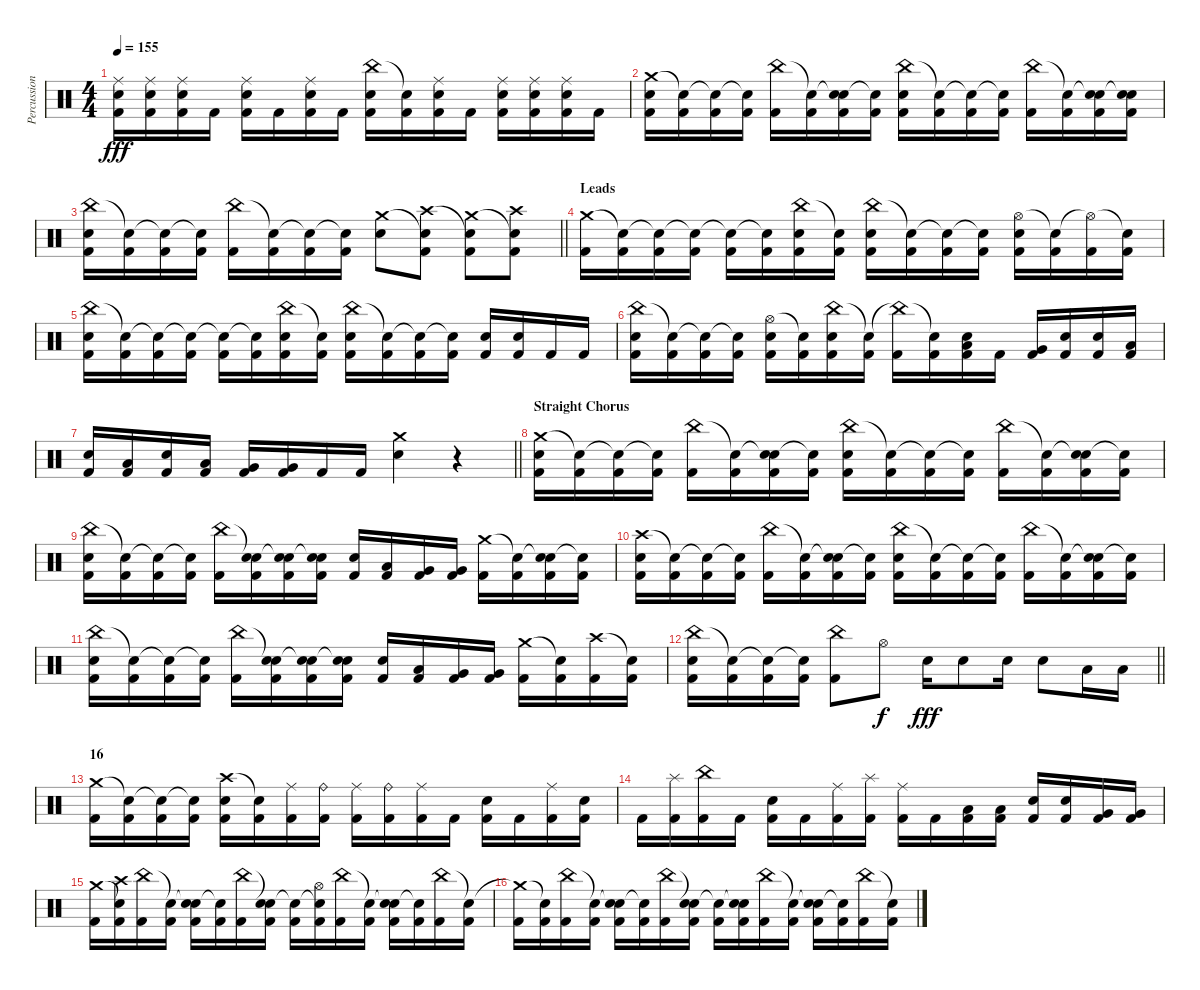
\track ("Percussion" "Percussion") {instrument percussion}
\staff {score}
\articulation defaults
\ts (4 4)
\tempo 155
\clef neutral
\ks c
("Ride (middle)" "Electric Snare (hit)" "Kick (hit) 2").16{dy fff} ("Ride (middle)" "Electric Snare (hit)" "Kick (hit) 2").16 ("Ride (middle)" "Electric Snare (hit)" "Kick (hit) 2").16 "Kick (hit) 2".16 ("Ride (middle)" "Electric Snare (hit)" "Kick (hit) 2").16 "Kick (hit) 2".16 ("Ride (middle)" "Electric Snare (hit)" "Kick (hit) 2").16 "Kick (hit) 2".16 ("China (hit)" "Electric Snare (hit)" "Kick (hit) 2").16 ("Snare (hit)"{t} "Kick (hit) 2").16 ("Ride (middle)" "Electric Snare (hit)" "Kick (hit) 2").16 "Kick (hit) 2".16 ("Ride (middle)" "Electric Snare (hit)" "Kick (hit) 2").16 ("Ride (middle)" "Electric Snare (hit)" "Kick (hit) 2").16 ("Ride (middle)" "Electric Snare (hit)" "Kick (hit) 2").16 "Kick (hit) 2".16 |
("Crash medium (hit)" "Electric Snare (hit)" "Kick (hit) 2").16 ("Snare (hit)"{t} "Kick (hit) 2").16 ("Snare (hit)"{t} "Kick (hit) 2").16 ("Snare (hit)"{t} "Kick (hit) 2").16 ("China (hit)" "Kick (hit) 2").16 ("Snare (hit)"{t} "Kick (hit) 2").16 ("Snare (hit)"{t} "Electric Snare (hit)" "Kick (hit) 2").16 ("Snare (hit)"{t} "Kick (hit) 2").16 ("China (hit)" "Electric Snare (hit)" "Kick (hit) 2").16 ("Snare (hit)"{t} "Kick (hit) 2").16 ("Snare (hit)"{t} "Kick (hit) 2").16 ("Snare (hit)"{t} "Kick (hit) 2").16 ("China (hit)" "Kick (hit) 2").16 ("Snare (hit)"{t} "Kick (hit) 2").16 ("Snare (hit)"{t} "Electric Snare (hit)" "Kick (hit) 2").16 ("Snare (hit)"{t} "Electric Snare (hit)" "Kick (hit) 2").16 |
\barLineRight lightlight
("China (hit)" "Electric Snare (hit)" "Kick (hit) 2").16 ("Snare (hit)"{t} "Kick (hit) 2").16 ("Snare (hit)"{t} "Kick (hit) 2").16 ("Snare (hit)"{t} "Kick (hit) 2").16 ("China (hit)" "Kick (hit) 2").16 ("Snare (hit)"{t} "Kick (hit) 2").16 ("Snare (hit)"{t} "Kick (hit) 2").16 ("Snare (hit)"{t} "Kick (hit) 2").16 ("Crash medium (hit)" "Electric Snare (hit)").8 ("Snare (hit)"{t} "Crash high (hit)" "Kick (hit) 2").8 ("Crash medium (hit)" "Snare (hit)"{t} "Kick (hit) 2").8 ("Snare (hit)"{t} "Crash high (hit)" "Kick (hit) 2").8 |
\section ("" "Leads")
("Crash medium (hit)" "Kick (hit) 2").16 ("Snare (hit)"{t} "Kick (hit) 2").16 ("Snare (hit)"{t} "Kick (hit) 2").16 ("Snare (hit)"{t} "Kick (hit) 2").16 ("Snare (hit)"{t} "Kick (hit) 2").16 ("Snare (hit)"{t} "Kick (hit) 2").16 ("China (hit)" "Electric Snare (hit)" "Kick (hit) 2").16 ("Snare (hit)"{t} "Kick (hit) 2").16 ("China (hit)" "Electric Snare (hit)" "Kick (hit) 2").16 ("Snare (hit)"{t} "Kick (hit) 2").16 ("Snare (hit)"{t} "Kick (hit) 2").16 ("Snare (hit)"{t} "Kick (hit) 2").16 ("Hi-Hat (open)" "Electric Snare (hit)" "Kick (hit) 2").16 ("Snare (hit)"{t} "Kick (hit) 2").16 ("Hi-Hat (open)"{t} "Kick (hit) 2").16 ("Snare (hit)"{t} "Kick (hit) 2").16 |
("China (hit)" "Electric Snare (hit)" "Kick (hit) 2").16 ("Snare (hit)"{t} "Kick (hit) 2").16 ("Snare (hit)"{t} "Kick (hit) 2").16 ("Snare (hit)"{t} "Kick (hit) 2").16 ("Snare (hit)"{t} "Kick (hit) 2").16 ("Snare (hit)"{t} "Kick (hit) 2").16 ("China (hit)" "Electric Snare (hit)" "Kick (hit) 2").16 ("Snare (hit)"{t} "Kick (hit) 2").16 ("China (hit)" "Electric Snare (hit)" "Kick (hit) 2").16 ("Snare (hit)"{t} "Kick (hit) 2").16 ("Snare (hit)"{t} "Kick (hit) 2").16 ("Snare (hit)"{t} "Kick (hit) 2").16 ("Electric Snare (hit)" "Kick (hit) 2").16 ("Electric Snare (hit)" "Kick (hit) 2").16 "Kick (hit) 2".16 "Kick (hit) 2".16 |
("China (hit)" "Electric Snare (hit)" "Kick (hit) 2").16 ("Snare (hit)"{t} "Kick (hit) 2").16 ("Snare (hit)"{t} "Kick (hit) 2").16 ("Snare (hit)"{t} "Kick (hit) 2").16 ("Hi-Hat (open)" "Electric Snare (hit)" "Kick (hit) 2").16 ("Snare (hit)"{t} "Kick (hit) 2").16 ("China (hit)" "Electric Snare (hit)" "Kick (hit) 2").16 ("Snare (hit)"{t} "Kick (hit) 2").16 ("China (hit)"{t} "Kick (hit) 2").16 ("Snare (hit)"{t} "Kick (hit) 2").16 ("Low Tom (hit)" "Electric Snare (hit)" "Kick (hit) 2").16 "Kick (hit) 2".16 ("Very Low Tom (hit)" "Kick (hit) 2").16 ("Electric Snare (hit)" "Kick (hit) 2").16 ("Electric Snare (hit)" "Kick (hit) 2").16 ("Low Tom (hit)" "Kick (hit) 2").16 |
\barLineRight lightlight
("Electric Snare (hit)" "Kick (hit) 2").16 ("Low Tom (hit)" "Kick (hit) 2").16 ("Electric Snare (hit)" "Kick (hit) 2").16 ("Low Tom (hit)" "Kick (hit) 2").16 ("Very Low Tom (hit)" "Kick (hit) 2").16 ("Very Low Tom (hit)" "Kick (hit) 2").16 "Kick (hit) 2".16 "Kick (hit) 2".16 ("Crash medium (hit)" "Electric Snare (hit)").4 r.4 |
\section ("" "Straight Chorus")
("Crash medium (hit)" "Electric Snare (hit)" "Kick (hit) 2").16 ("Snare (hit)"{t} "Kick (hit) 2").16 ("Snare (hit)"{t} "Kick (hit) 2").16 ("Snare (hit)"{t} "Kick (hit) 2").16 ("China (hit)" "Kick (hit) 2").16 ("Snare (hit)"{t} "Kick (hit) 2").16 ("Snare (hit)"{t} "Electric Snare (hit)" "Kick (hit) 2").16 ("Snare (hit)"{t} "Kick (hit) 2").16 ("China (hit)" "Electric Snare (hit)" "Kick (hit) 2").16 ("Snare (hit)"{t} "Kick (hit) 2").16 ("Snare (hit)"{t} "Kick (hit) 2").16 ("Snare (hit)"{t} "Kick (hit) 2").16 ("China (hit)" "Kick (hit) 2").16 ("Snare (hit)"{t} "Kick (hit) 2").16 ("Snare (hit)"{t} "Electric Snare (hit)" "Kick (hit) 2").16 ("Snare (hit)"{t} "Kick (hit) 2").16 |
("China (hit)" "Electric Snare (hit)" "Kick (hit) 2").16 ("Snare (hit)"{t} "Kick (hit) 2").16 ("Snare (hit)"{t} "Kick (hit) 2").16 ("Snare (hit)"{t} "Kick (hit) 2").16 ("China (hit)" "Kick (hit) 2").16 ("Snare (hit)"{t} "Electric Snare (hit)" "Kick (hit) 2").16 ("Snare (hit)"{t} "Electric Snare (hit)" "Kick (hit) 2").16 ("Snare (hit)"{t} "Electric Snare (hit)" "Kick (hit) 2").16 ("Electric Snare (hit)" "Kick (hit) 2").16 ("Low Tom (hit)" "Kick (hit) 2").16 ("Very Low Tom (hit)" "Kick (hit) 2").16 ("Very Low Tom (hit)" "Kick (hit) 2").16 ("Crash medium (hit)" "Kick (hit) 2").16 ("Snare (hit)"{t} "Kick (hit) 2").16 ("Snare (hit)"{t} "Electric Snare (hit)" "Kick (hit) 2").16 ("Snare (hit)"{t} "Kick (hit) 2").16 |
("Crash high (hit)" "Electric Snare (hit)" "Kick (hit) 2").16 ("Snare (hit)"{t} "Kick (hit) 2").16 ("Snare (hit)"{t} "Kick (hit) 2").16 ("Snare (hit)"{t} "Kick (hit) 2").16 ("China (hit)" "Kick (hit) 2").16 ("Snare (hit)"{t} "Kick (hit) 2").16 ("Snare (hit)"{t} "Electric Snare (hit)" "Kick (hit) 2").16 ("Snare (hit)"{t} "Kick (hit) 2").16 ("China (hit)" "Electric Snare (hit)" "Kick (hit) 2").16 ("Snare (hit)"{t} "Kick (hit) 2").16 ("Snare (hit)"{t} "Kick (hit) 2").16 ("Snare (hit)"{t} "Kick (hit) 2").16 ("China (hit)" "Kick (hit) 2").16 ("Snare (hit)"{t} "Kick (hit) 2").16 ("Snare (hit)"{t} "Electric Snare (hit)" "Kick (hit) 2").16 ("Snare (hit)"{t} "Kick (hit) 2").16 |
("China (hit)" "Electric Snare (hit)" "Kick (hit) 2").16 ("Snare (hit)"{t} "Kick (hit) 2").16 ("Snare (hit)"{t} "Kick (hit) 2").16 ("Snare (hit)"{t} "Kick (hit) 2").16 ("China (hit)" "Kick (hit) 2").16 ("Snare (hit)"{t} "Electric Snare (hit)" "Kick (hit) 2").16 ("Snare (hit)"{t} "Electric Snare (hit)" "Kick (hit) 2").16 ("Snare (hit)"{t} "Electric Snare (hit)" "Kick (hit) 2").16 ("Electric Snare (hit)" "Kick (hit) 2").16 ("Low Tom (hit)" "Kick (hit) 2").16 ("Very Low Tom (hit)" "Kick (hit) 2").16 ("Very Low Tom (hit)" "Kick (hit) 2").16 ("Crash medium (hit)" "Kick (hit) 2").16 ("Snare (hit)"{t} "Kick (hit) 2").16 ("Crash high (hit)" "Kick (hit) 2").16 ("Snare (hit)"{t} "Kick (hit) 2").16 |
\barLineRight lightlight
("China (hit)" "Electric Snare (hit)" "Kick (hit) 2").16 ("Snare (hit)"{t} "Kick (hit) 2").16 ("Snare (hit)"{t} "Kick (hit) 2").16 ("Snare (hit)"{t} "Kick (hit) 2").16 ("China (hit)" "Kick (hit) 2").8 "Hi-Hat (open)".8{dy f} "Electric Snare (hit)".16{dy fff} "Electric Snare (hit)".8 "Electric Snare (hit)".16 "Electric Snare (hit)".8 "Low Tom (hit)".16 "Low Tom (hit)".16 |
\section ("" "16")
("Crash medium (hit)" "Kick (hit) 2").16 ("Snare (hit)"{t} "Kick (hit) 2").16 ("Snare (hit)"{t} "Kick (hit) 2").16 ("Snare (hit)"{t} "Kick (hit) 2").16 ("Crash high (hit)" "Electric Snare (hit)" "Kick (hit) 2").16 ("Snare (hit)"{t} "Kick (hit) 2").16 ("Ride (middle)" "Kick (hit) 2").16 ("Ride (bell)" "Kick (hit) 2").16 ("Ride (middle)" "Kick (hit) 2").16 ("Ride (bell)" "Kick (hit) 2").16 ("Ride (middle)" "Kick (hit) 2").16 "Kick (hit) 2".16 ("Electric Snare (hit)" "Kick (hit) 2").16 "Kick (hit) 2".16 ("Ride (middle)" "Kick (hit) 2").16 ("Electric Snare (hit)" "Kick (hit) 2").16 |
"Kick (hit) 2".16 ("Splash (hit)" "Kick (hit) 2").16 ("China (hit)" "Kick (hit) 2").16 "Kick (hit) 2".16 ("Electric Snare (hit)" "Kick (hit) 2").16 "Kick (hit) 2".16 ("Ride (middle)" "Kick (hit) 2").16 ("Splash (hit)" "Kick (hit) 2").16 ("Ride (middle)" "Kick (hit) 2").16 "Kick (hit) 2".16 ("Low Tom (hit)" "Kick (hit) 2").16 ("Low Tom (hit)" "Kick (hit) 2").16 ("Electric Snare (hit)" "Kick (hit) 2").16 ("Electric Snare (hit)" "Kick (hit) 2").16 ("Very Low Tom (hit)" "Kick (hit) 2").16 ("Very Low Tom (hit)" "Kick (hit) 2").16 |
("Crash medium (hit)" "Kick (hit) 2").16 ("Snare (hit)"{t} "Crash high (hit)" "Kick (hit) 2").16 ("China (hit)" "Kick (hit) 2").16 ("Snare (hit)"{t} "Kick (hit) 2").16 ("Snare (hit)"{t} "Electric Snare (hit)" "Kick (hit) 2").16 ("Snare (hit)"{t} "Kick (hit) 2").16 ("China (hit)" "Kick (hit) 2").16 ("Snare (hit)"{t} "Electric Snare (hit)" "Kick (hit) 2").16 ("Snare (hit)"{t} "Kick (hit) 2").16 ("Snare (hit)"{t} "Hi-Hat (open)" "Kick (hit) 2").16 ("China (hit)" "Kick (hit) 2").16 ("Snare (hit)"{t} "Kick (hit) 2").16 ("Snare (hit)"{t} "Electric Snare (hit)" "Kick (hit) 2").16 ("Snare (hit)"{t} "Kick (hit) 2").16 ("China (hit)" "Kick (hit) 2").16 ("Snare (hit)"{t} "Kick (hit) 2").16 |
("Crash medium (hit)"{t} "Kick (hit) 2").16 ("Snare (hit)"{t} "Kick (hit) 2").16 ("China (hit)" "Kick (hit) 2").16 ("Snare (hit)"{t} "Kick (hit) 2").16 ("Snare (hit)"{t} "Electric Snare (hit)" "Kick (hit) 2").16 ("Snare (hit)"{t} "Kick (hit) 2").16 ("China (hit)" "Kick (hit) 2").16 ("Snare (hit)"{t} "Electric Snare (hit)" "Kick (hit) 2").16 ("Snare (hit)"{t} "Kick (hit) 2").16 ("Snare (hit)"{t} "Electric Snare (hit)" "Kick (hit) 2").16 ("China (hit)" "Kick (hit) 2").16 ("Snare (hit)"{t} "Kick (hit) 2").16 ("Snare (hit)"{t} "Electric Snare (hit)" "Kick (hit) 2").16 ("Snare (hit)"{t} "Kick (hit) 2").16 ("China (hit)" "Kick (hit) 2").16 ("Snare (hit)"{t} "Kick (hit) 2").16
